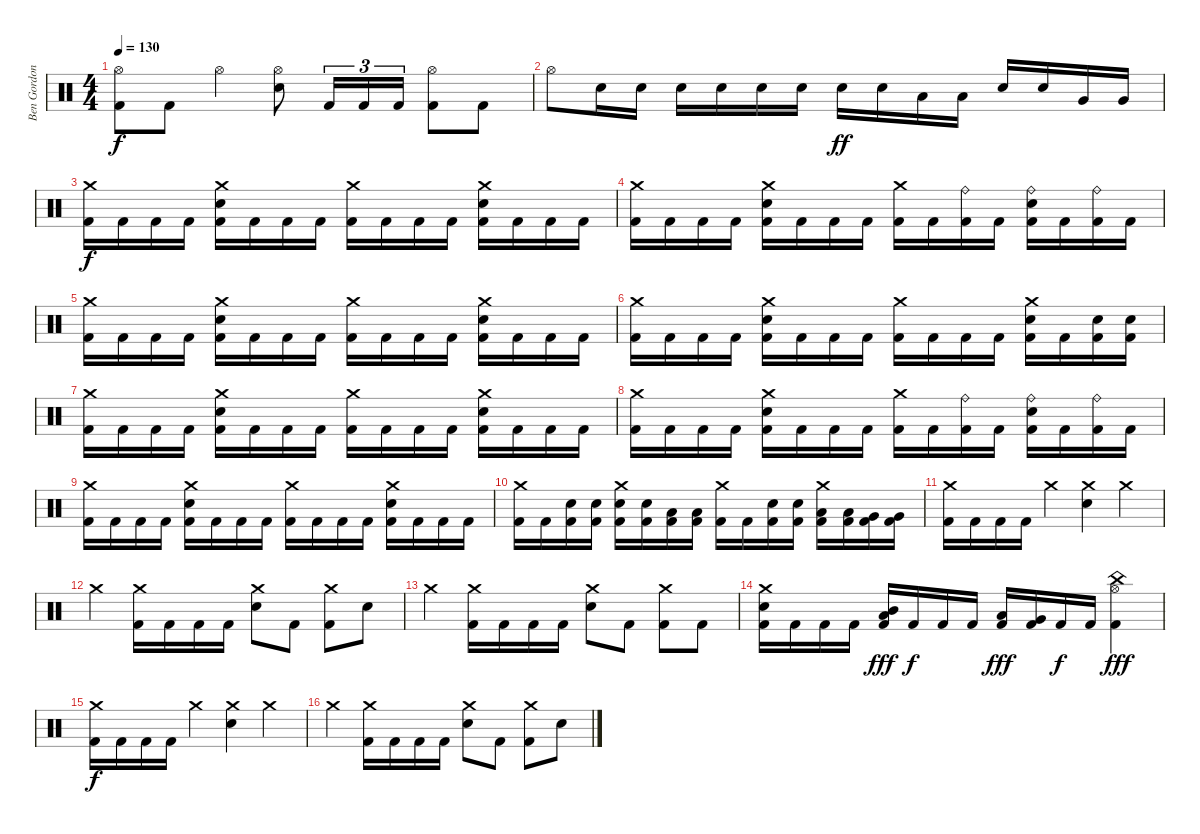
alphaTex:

\track ("Ben Gordon" "Ben Gordon") {instrument percussion}
\staff {score}
\articulation defaults
\ts (4 4)
\tempo 130
\clef neutral
\ks c
("Hi-Hat (open)" "Kick (hit) 2").8{dy f} "Kick (hit) 2".8 "Hi-Hat (open)".4 ("Hi-Hat (open)" "Snare (hit) 2").8 "Kick (hit) 2".16{tu (3 2)} "Kick (hit) 2".16{tu (3 2)} "Kick (hit) 2".16{tu (3 2)} ("Hi-Hat (open)" "Kick (hit) 2").8 "Kick (hit) 2".8 |
"Hi-Hat (open)".8 "Snare (hit) 2".16 "Snare (hit) 2".16 "Snare (hit) 2".16 "Snare (hit) 2".16 "Snare (hit) 2".16 "Snare (hit) 2".16 "Snare (hit) 2".16{dy ff} "Snare (hit) 2".16 "Low Tom (hit)".16 "Low Tom (hit)".16 "Snare (hit) 2".16 "Snare (hit) 2".16 "Very Low Tom (hit)".16 "Very Low Tom (hit)".16 |
("Crash medium (hit)" "Kick (hit) 2").16{dy f volume 16} "Kick (hit) 2".16 "Kick (hit) 2".16 "Kick (hit) 2".16 ("Crash medium (hit)" "Snare (hit) 2" "Kick (hit) 2").16 "Kick (hit) 2".16 "Kick (hit) 2".16 "Kick (hit) 2".16 ("Crash medium (hit)" "Kick (hit) 2").16 "Kick (hit) 2".16 "Kick (hit) 2".16 "Kick (hit) 2".16 ("Crash medium (hit)" "Snare (hit) 2" "Kick (hit) 2").16 "Kick (hit) 2".16 "Kick (hit) 2".16 "Kick (hit) 2".16 |
("Crash medium (hit)" "Kick (hit) 2").16 "Kick (hit) 2".16 "Kick (hit) 2".16 "Kick (hit) 2".16 ("Crash medium (hit)" "Snare (hit) 2" "Kick (hit) 2").16 "Kick (hit) 2".16 "Kick (hit) 2".16 "Kick (hit) 2".16 ("Crash medium (hit)" "Kick (hit) 2").16 "Kick (hit) 2".16 ("Ride (bell)" "Kick (hit) 2").16 "Kick (hit) 2".16 ("Ride (bell)" "Snare (hit) 2" "Kick (hit) 2").16 "Kick (hit) 2".16 ("Ride (bell)" "Kick (hit) 2").16 "Kick (hit) 2".16 |
("Crash medium (hit)" "Kick (hit) 2").16 "Kick (hit) 2".16 "Kick (hit) 2".16 "Kick (hit) 2".16 ("Crash medium (hit)" "Snare (hit) 2" "Kick (hit) 2").16 "Kick (hit) 2".16 "Kick (hit) 2".16 "Kick (hit) 2".16 ("Crash medium (hit)" "Kick (hit) 2").16 "Kick (hit) 2".16 "Kick (hit) 2".16 "Kick (hit) 2".16 ("Crash medium (hit)" "Snare (hit) 2" "Kick (hit) 2").16 "Kick (hit) 2".16 "Kick (hit) 2".16 "Kick (hit) 2".16 |
("Crash medium (hit)" "Kick (hit) 2").16 "Kick (hit) 2".16 "Kick (hit) 2".16 "Kick (hit) 2".16 ("Crash medium (hit)" "Snare (hit) 2" "Kick (hit) 2").16 "Kick (hit) 2".16 "Kick (hit) 2".16 "Kick (hit) 2".16 ("Crash medium (hit)" "Kick (hit) 2").16 "Kick (hit) 2".16 "Kick (hit) 2".16 "Kick (hit) 2".16 ("Crash medium (hit)" "Snare (hit) 2" "Kick (hit) 2").16 "Kick (hit) 2".16 ("Snare (hit) 2" "Kick (hit) 2").16 ("Snare (hit) 2" "Kick (hit) 2").16 |
("Crash medium (hit)" "Kick (hit) 2").16 "Kick (hit) 2".16 "Kick (hit) 2".16 "Kick (hit) 2".16 ("Crash medium (hit)" "Snare (hit) 2" "Kick (hit) 2").16 "Kick (hit) 2".16 "Kick (hit) 2".16 "Kick (hit) 2".16 ("Crash medium (hit)" "Kick (hit) 2").16 "Kick (hit) 2".16 "Kick (hit) 2".16 "Kick (hit) 2".16 ("Crash medium (hit)" "Snare (hit) 2" "Kick (hit) 2").16 "Kick (hit) 2".16 "Kick (hit) 2".16 "Kick (hit) 2".16 |
("Crash medium (hit)" "Kick (hit) 2").16 "Kick (hit) 2".16 "Kick (hit) 2".16 "Kick (hit) 2".16 ("Crash medium (hit)" "Snare (hit) 2" "Kick (hit) 2").16 "Kick (hit) 2".16 "Kick (hit) 2".16 "Kick (hit) 2".16 ("Crash medium (hit)" "Kick (hit) 2").16 "Kick (hit) 2".16 ("Ride (bell)" "Kick (hit) 2").16 "Kick (hit) 2".16 ("Ride (bell)" "Snare (hit) 2" "Kick (hit) 2").16 "Kick (hit) 2".16 ("Ride (bell)" "Kick (hit) 2").16 "Kick (hit) 2".16 |
("Crash medium (hit)" "Kick (hit) 2").16 "Kick (hit) 2".16 "Kick (hit) 2".16 "Kick (hit) 2".16 ("Crash medium (hit)" "Snare (hit) 2" "Kick (hit) 2").16 "Kick (hit) 2".16 "Kick (hit) 2".16 "Kick (hit) 2".16 ("Crash medium (hit)" "Kick (hit) 2").16 "Kick (hit) 2".16 "Kick (hit) 2".16 "Kick (hit) 2".16 ("Crash medium (hit)" "Snare (hit) 2" "Kick (hit) 2").16 "Kick (hit) 2".16 "Kick (hit) 2".16 "Kick (hit) 2".16 |
("Crash medium (hit)" "Kick (hit) 2").16 "Kick (hit) 2".16 ("Snare (hit) 2" "Kick (hit) 2").16 ("Snare (hit) 2" "Kick (hit) 2").16 ("Crash medium (hit)" "Snare (hit) 2" "Kick (hit) 2").16 ("Snare (hit) 2" "Kick (hit) 2").16 ("Low Tom (hit)" "Kick (hit) 2").16 ("Low Tom (hit)" "Kick (hit) 2").16 ("Crash medium (hit)" "Kick (hit) 2").16 "Kick (hit) 2".16 ("Snare (hit) 2" "Kick (hit) 2").16 ("Snare (hit) 2" "Kick (hit) 2").16 ("Crash medium (hit)" "Low Tom (hit)" "Kick (hit) 2").16 ("Low Tom (hit)" "Kick (hit) 2").16 ("Very Low Tom (hit)" "Kick (hit) 2").16 ("Very Low Tom (hit)" "Kick (hit) 2").16 |
("Crash medium (hit)" "Kick (hit) 2").16 "Kick (hit) 2".16 "Kick (hit) 2".16 "Kick (hit) 2".16 "Crash medium (hit)".4 ("Crash medium (hit)" "Snare (hit) 2").4 "Crash medium (hit)".4 |
"Crash medium (hit)".4 ("Crash medium (hit)" "Kick (hit) 2").16 "Kick (hit) 2".16 "Kick (hit) 2".16 "Kick (hit) 2".16 ("Crash medium (hit)" "Snare (hit) 2").8 "Kick (hit) 2".8 ("Crash medium (hit)" "Kick (hit) 2").8 "Snare (hit) 2".8 |
"Crash medium (hit)".4 ("Crash medium (hit)" "Kick (hit) 2").16 "Kick (hit) 2".16 "Kick (hit) 2".16 "Kick (hit) 2".16 ("Crash medium (hit)" "Snare (hit) 2").8 "Kick (hit) 2".8 ("Crash medium (hit)" "Kick (hit) 2").8 "Kick (hit) 2".8 |
("Crash medium (hit)" "Snare (hit) 2" "Kick (hit) 2").16 "Kick (hit) 2".16 "Kick (hit) 2".16 "Kick (hit) 2".16 ("Mid Tom (hit)" "Low Tom (hit)" "Kick (hit) 2").16{dy fff} "Kick (hit) 2".16{dy f} "Kick (hit) 2".16 "Kick (hit) 2".16 ("Low Tom (hit)" "Kick (hit) 2").16{dy fff} ("Very Low Tom (hit)" "Kick (hit) 2").16 "Kick (hit) 2".16{dy f} "Kick (hit) 2".16 ("China (hit)" "Hi-Hat (open)" "Kick (hit) 2").4{dy fff} |
("Crash medium (hit)" "Kick (hit) 2").16{dy f} "Kick (hit) 2".16 "Kick (hit) 2".16 "Kick (hit) 2".16 "Crash medium (hit)".4 ("Crash medium (hit)" "Snare (hit) 2").4 "Crash medium (hit)".4 |
"Crash medium (hit)".4 ("Crash medium (hit)" "Kick (hit) 2").16 "Kick (hit) 2".16 "Kick (hit) 2".16 "Kick (hit) 2".16 ("Crash medium (hit)" "Snare (hit) 2").8 "Kick (hit) 2".8 ("Crash medium (hit)" "Kick (hit) 2").8 "Snare (hit) 2".8
